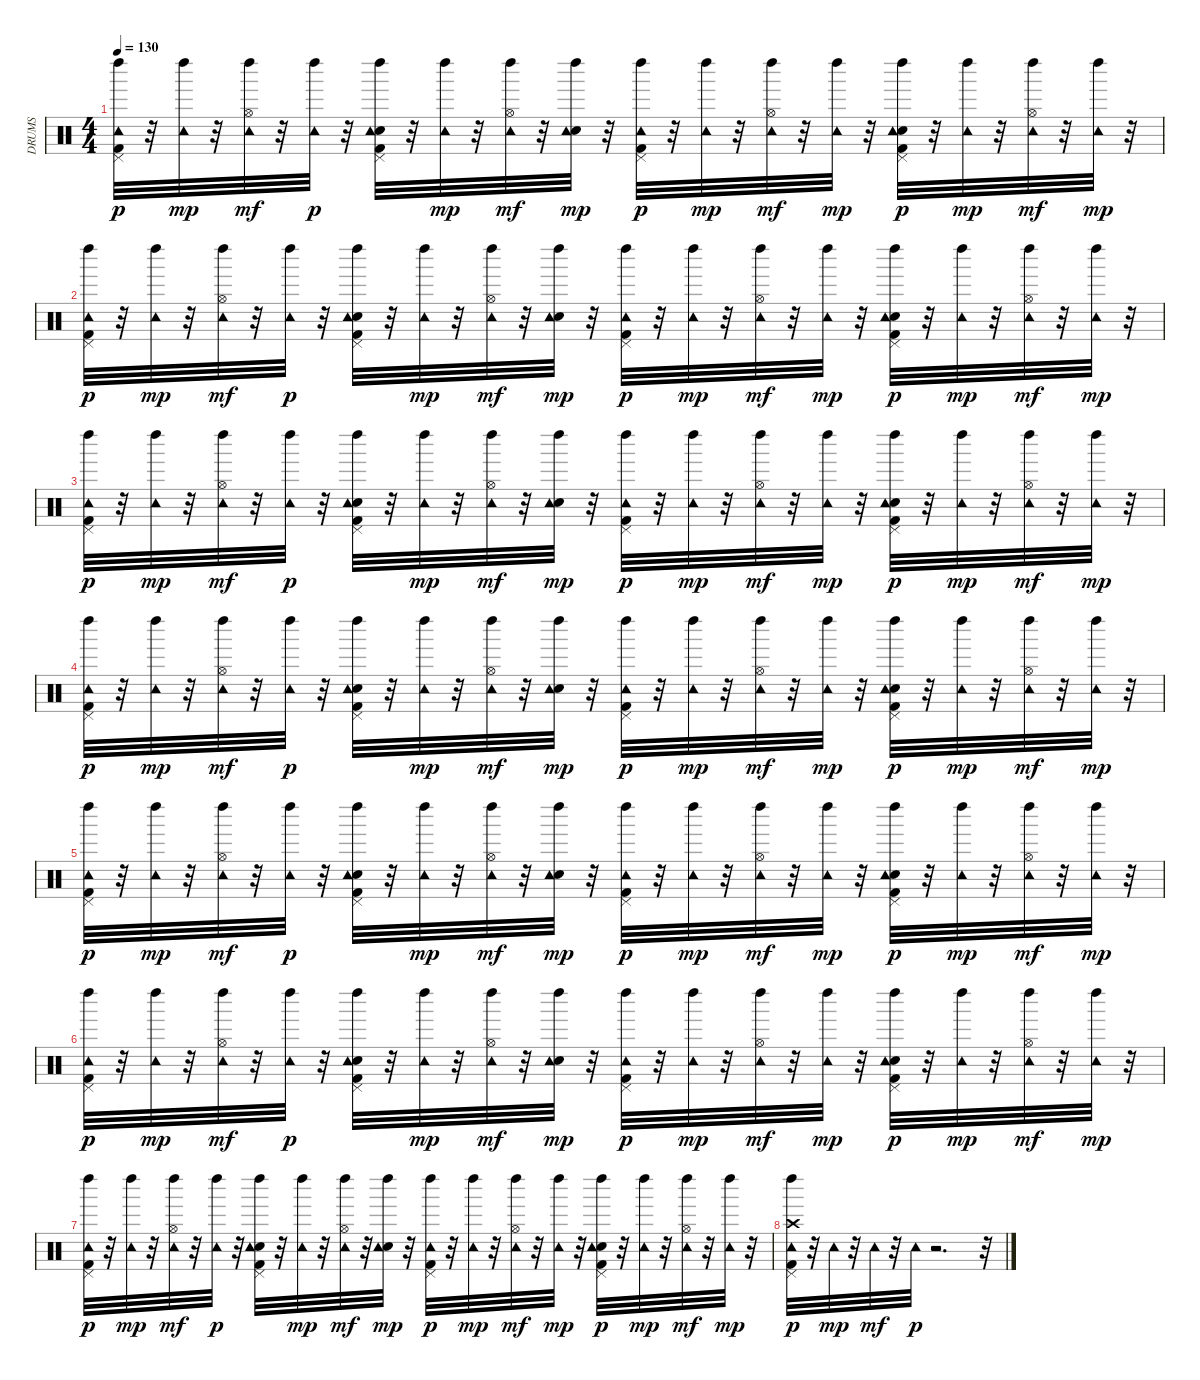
\track ("DRUMS" "DRUMS") {instrument percussion}
\staff {score}
\articulation defaults
\ts (4 4)
\tempo 130
\clef neutral
\ks c
("Kick (hit) 2" "Pedal Hi-Hat (hit)" "Left Maraca (hit)" "Tambourine (hit)").32{dy p} r.32 ("Left Maraca (hit)" "Tambourine (hit)").32{dy mp} r.32 ("Hi-Hat (open)" "Left Maraca (hit)" "Tambourine (hit)").32{dy mf} r.32 ("Left Maraca (hit)" "Tambourine (hit)").32{dy p} r.32 ("Kick (hit) 2" "Electric Snare (hit)" "Pedal Hi-Hat (hit)" "Left Maraca (hit)" "Tambourine (hit)").32 r.32 ("Left Maraca (hit)" "Tambourine (hit)").32{dy mp} r.32 ("Hi-Hat (open)" "Left Maraca (hit)" "Tambourine (hit)").32{dy mf} r.32 ("Electric Snare (hit)" "Left Maraca (hit)" "Tambourine (hit)").32{dy mp} r.32 ("Kick (hit) 2" "Pedal Hi-Hat (hit)" "Left Maraca (hit)" "Tambourine (hit)").32{dy p} r.32 ("Left Maraca (hit)" "Tambourine (hit)").32{dy mp} r.32 ("Hi-Hat (open)" "Left Maraca (hit)" "Tambourine (hit)").32{dy mf} r.32 ("Left Maraca (hit)" "Tambourine (hit)").32{dy mp} r.32 ("Kick (hit) 2" "Electric Snare (hit)" "Pedal Hi-Hat (hit)" "Left Maraca (hit)" "Tambourine (hit)").32{dy p} r.32 ("Left Maraca (hit)" "Tambourine (hit)").32{dy mp} r.32 ("Hi-Hat (open)" "Left Maraca (hit)" "Tambourine (hit)").32{dy mf} r.32 ("Left Maraca (hit)" "Tambourine (hit)").32{dy mp} r.32 |
("Kick (hit) 2" "Pedal Hi-Hat (hit)" "Left Maraca (hit)" "Tambourine (hit)").32{dy p} r.32 ("Left Maraca (hit)" "Tambourine (hit)").32{dy mp} r.32 ("Hi-Hat (open)" "Left Maraca (hit)" "Tambourine (hit)").32{dy mf} r.32 ("Left Maraca (hit)" "Tambourine (hit)").32{dy p} r.32 ("Kick (hit) 2" "Electric Snare (hit)" "Pedal Hi-Hat (hit)" "Left Maraca (hit)" "Tambourine (hit)").32 r.32 ("Left Maraca (hit)" "Tambourine (hit)").32{dy mp} r.32 ("Hi-Hat (open)" "Left Maraca (hit)" "Tambourine (hit)").32{dy mf} r.32 ("Electric Snare (hit)" "Left Maraca (hit)" "Tambourine (hit)").32{dy mp} r.32 ("Kick (hit) 2" "Pedal Hi-Hat (hit)" "Left Maraca (hit)" "Tambourine (hit)").32{dy p} r.32 ("Left Maraca (hit)" "Tambourine (hit)").32{dy mp} r.32 ("Hi-Hat (open)" "Left Maraca (hit)" "Tambourine (hit)").32{dy mf} r.32 ("Left Maraca (hit)" "Tambourine (hit)").32{dy mp} r.32 ("Kick (hit) 2" "Electric Snare (hit)" "Pedal Hi-Hat (hit)" "Left Maraca (hit)" "Tambourine (hit)").32{dy p} r.32 ("Left Maraca (hit)" "Tambourine (hit)").32{dy mp} r.32 ("Hi-Hat (open)" "Left Maraca (hit)" "Tambourine (hit)").32{dy mf} r.32 ("Left Maraca (hit)" "Tambourine (hit)").32{dy mp} r.32 |
("Kick (hit) 2" "Pedal Hi-Hat (hit)" "Left Maraca (hit)" "Tambourine (hit)").32{dy p} r.32 ("Left Maraca (hit)" "Tambourine (hit)").32{dy mp} r.32 ("Hi-Hat (open)" "Left Maraca (hit)" "Tambourine (hit)").32{dy mf} r.32 ("Left Maraca (hit)" "Tambourine (hit)").32{dy p} r.32 ("Kick (hit) 2" "Electric Snare (hit)" "Pedal Hi-Hat (hit)" "Left Maraca (hit)" "Tambourine (hit)").32 r.32 ("Left Maraca (hit)" "Tambourine (hit)").32{dy mp} r.32 ("Hi-Hat (open)" "Left Maraca (hit)" "Tambourine (hit)").32{dy mf} r.32 ("Electric Snare (hit)" "Left Maraca (hit)" "Tambourine (hit)").32{dy mp} r.32 ("Kick (hit) 2" "Pedal Hi-Hat (hit)" "Left Maraca (hit)" "Tambourine (hit)").32{dy p} r.32 ("Left Maraca (hit)" "Tambourine (hit)").32{dy mp} r.32 ("Hi-Hat (open)" "Left Maraca (hit)" "Tambourine (hit)").32{dy mf} r.32 ("Left Maraca (hit)" "Tambourine (hit)").32{dy mp} r.32 ("Kick (hit) 2" "Electric Snare (hit)" "Pedal Hi-Hat (hit)" "Left Maraca (hit)" "Tambourine (hit)").32{dy p} r.32 ("Left Maraca (hit)" "Tambourine (hit)").32{dy mp} r.32 ("Hi-Hat (open)" "Left Maraca (hit)" "Tambourine (hit)").32{dy mf} r.32 ("Left Maraca (hit)" "Tambourine (hit)").32{dy mp} r.32 |
("Kick (hit) 2" "Pedal Hi-Hat (hit)" "Left Maraca (hit)" "Tambourine (hit)").32{dy p} r.32 ("Left Maraca (hit)" "Tambourine (hit)").32{dy mp} r.32 ("Hi-Hat (open)" "Left Maraca (hit)" "Tambourine (hit)").32{dy mf} r.32 ("Left Maraca (hit)" "Tambourine (hit)").32{dy p} r.32 ("Kick (hit) 2" "Electric Snare (hit)" "Pedal Hi-Hat (hit)" "Left Maraca (hit)" "Tambourine (hit)").32 r.32 ("Left Maraca (hit)" "Tambourine (hit)").32{dy mp} r.32 ("Hi-Hat (open)" "Left Maraca (hit)" "Tambourine (hit)").32{dy mf} r.32 ("Electric Snare (hit)" "Left Maraca (hit)" "Tambourine (hit)").32{dy mp} r.32 ("Kick (hit) 2" "Pedal Hi-Hat (hit)" "Left Maraca (hit)" "Tambourine (hit)").32{dy p} r.32 ("Left Maraca (hit)" "Tambourine (hit)").32{dy mp} r.32 ("Hi-Hat (open)" "Left Maraca (hit)" "Tambourine (hit)").32{dy mf} r.32 ("Left Maraca (hit)" "Tambourine (hit)").32{dy mp} r.32 ("Kick (hit) 2" "Electric Snare (hit)" "Pedal Hi-Hat (hit)" "Left Maraca (hit)" "Tambourine (hit)").32{dy p} r.32 ("Left Maraca (hit)" "Tambourine (hit)").32{dy mp} r.32 ("Hi-Hat (open)" "Left Maraca (hit)" "Tambourine (hit)").32{dy mf} r.32 ("Left Maraca (hit)" "Tambourine (hit)").32{dy mp} r.32 |
("Kick (hit) 2" "Pedal Hi-Hat (hit)" "Left Maraca (hit)" "Tambourine (hit)").32{dy p} r.32 ("Left Maraca (hit)" "Tambourine (hit)").32{dy mp} r.32 ("Hi-Hat (open)" "Left Maraca (hit)" "Tambourine (hit)").32{dy mf} r.32 ("Left Maraca (hit)" "Tambourine (hit)").32{dy p} r.32 ("Kick (hit) 2" "Electric Snare (hit)" "Pedal Hi-Hat (hit)" "Left Maraca (hit)" "Tambourine (hit)").32 r.32 ("Left Maraca (hit)" "Tambourine (hit)").32{dy mp} r.32 ("Hi-Hat (open)" "Left Maraca (hit)" "Tambourine (hit)").32{dy mf} r.32 ("Electric Snare (hit)" "Left Maraca (hit)" "Tambourine (hit)").32{dy mp} r.32 ("Kick (hit) 2" "Pedal Hi-Hat (hit)" "Left Maraca (hit)" "Tambourine (hit)").32{dy p} r.32 ("Left Maraca (hit)" "Tambourine (hit)").32{dy mp} r.32 ("Hi-Hat (open)" "Left Maraca (hit)" "Tambourine (hit)").32{dy mf} r.32 ("Left Maraca (hit)" "Tambourine (hit)").32{dy mp} r.32 ("Kick (hit) 2" "Electric Snare (hit)" "Pedal Hi-Hat (hit)" "Left Maraca (hit)" "Tambourine (hit)").32{dy p} r.32 ("Left Maraca (hit)" "Tambourine (hit)").32{dy mp} r.32 ("Hi-Hat (open)" "Left Maraca (hit)" "Tambourine (hit)").32{dy mf} r.32 ("Left Maraca (hit)" "Tambourine (hit)").32{dy mp} r.32 |
("Kick (hit) 2" "Pedal Hi-Hat (hit)" "Left Maraca (hit)" "Tambourine (hit)").32{dy p} r.32 ("Left Maraca (hit)" "Tambourine (hit)").32{dy mp} r.32 ("Hi-Hat (open)" "Left Maraca (hit)" "Tambourine (hit)").32{dy mf} r.32 ("Left Maraca (hit)" "Tambourine (hit)").32{dy p} r.32 ("Kick (hit) 2" "Electric Snare (hit)" "Pedal Hi-Hat (hit)" "Left Maraca (hit)" "Tambourine (hit)").32 r.32 ("Left Maraca (hit)" "Tambourine (hit)").32{dy mp} r.32 ("Hi-Hat (open)" "Left Maraca (hit)" "Tambourine (hit)").32{dy mf} r.32 ("Electric Snare (hit)" "Left Maraca (hit)" "Tambourine (hit)").32{dy mp} r.32 ("Kick (hit) 2" "Pedal Hi-Hat (hit)" "Left Maraca (hit)" "Tambourine (hit)").32{dy p} r.32 ("Left Maraca (hit)" "Tambourine (hit)").32{dy mp} r.32 ("Hi-Hat (open)" "Left Maraca (hit)" "Tambourine (hit)").32{dy mf} r.32 ("Left Maraca (hit)" "Tambourine (hit)").32{dy mp} r.32 ("Kick (hit) 2" "Electric Snare (hit)" "Pedal Hi-Hat (hit)" "Left Maraca (hit)" "Tambourine (hit)").32{dy p} r.32 ("Left Maraca (hit)" "Tambourine (hit)").32{dy mp} r.32 ("Hi-Hat (open)" "Left Maraca (hit)" "Tambourine (hit)").32{dy mf} r.32 ("Left Maraca (hit)" "Tambourine (hit)").32{dy mp} r.32 |
("Kick (hit) 2" "Pedal Hi-Hat (hit)" "Left Maraca (hit)" "Tambourine (hit)").32{dy p} r.32 ("Left Maraca (hit)" "Tambourine (hit)").32{dy mp} r.32 ("Hi-Hat (open)" "Left Maraca (hit)" "Tambourine (hit)").32{dy mf} r.32 ("Left Maraca (hit)" "Tambourine (hit)").32{dy p} r.32 ("Kick (hit) 2" "Electric Snare (hit)" "Pedal Hi-Hat (hit)" "Left Maraca (hit)" "Tambourine (hit)").32 r.32 ("Left Maraca (hit)" "Tambourine (hit)").32{dy mp} r.32 ("Hi-Hat (open)" "Left Maraca (hit)" "Tambourine (hit)").32{dy mf} r.32 ("Electric Snare (hit)" "Left Maraca (hit)" "Tambourine (hit)").32{dy mp} r.32 ("Kick (hit) 2" "Pedal Hi-Hat (hit)" "Left Maraca (hit)" "Tambourine (hit)").32{dy p} r.32 ("Left Maraca (hit)" "Tambourine (hit)").32{dy mp} r.32 ("Hi-Hat (open)" "Left Maraca (hit)" "Tambourine (hit)").32{dy mf} r.32 ("Left Maraca (hit)" "Tambourine (hit)").32{dy mp} r.32 ("Kick (hit) 2" "Electric Snare (hit)" "Pedal Hi-Hat (hit)" "Left Maraca (hit)" "Tambourine (hit)").32{dy p} r.32 ("Left Maraca (hit)" "Tambourine (hit)").32{dy mp} r.32 ("Hi-Hat (open)" "Left Maraca (hit)" "Tambourine (hit)").32{dy mf} r.32 ("Left Maraca (hit)" "Tambourine (hit)").32{dy mp} r.32 |
("Kick (hit) 2" "Pedal Hi-Hat (hit)" "Left Maraca (hit)" "Crash high (hit)" "Tambourine (hit)").32{dy p} r.32 "Tambourine (hit)".32{dy mp} r.32 "Tambourine (hit)".32{dy mf} r.32 "Tambourine (hit)".32{dy p} r.2{d} r.32
